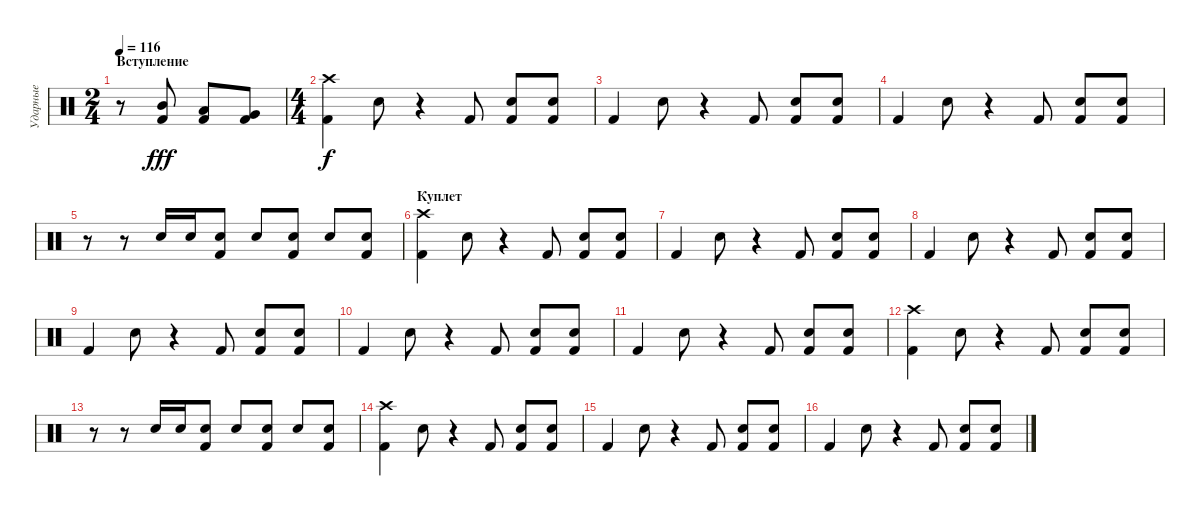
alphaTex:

\track ("Ударные" "Ударные") {instrument percussion}
\staff {score}
\articulation defaults
\ts (2 4)
\section ("" "Вступление")
\tempo 116
\clef neutral
\ks c
r.8{dy fff} ("Mid Tom (hit)" "Kick (hit) 2").8 ("Low Tom (hit)" "Kick (hit) 2").8 ("Very Low Tom (hit)" "Kick (hit) 2").8 |
\ts (4 4)
("Crash high (hit)" "Kick (hit) 2").4{dy f} "Electric Snare (hit)".8 r.4 "Kick (hit) 2".8 ("Electric Snare (hit)" "Kick (hit) 2").8 ("Electric Snare (hit)" "Kick (hit) 2").8 |
"Kick (hit) 2".4 "Electric Snare (hit)".8 r.4 "Kick (hit) 2".8 ("Electric Snare (hit)" "Kick (hit) 2").8 ("Electric Snare (hit)" "Kick (hit) 2").8 |
"Kick (hit) 2".4 "Electric Snare (hit)".8 r.4 "Kick (hit) 2".8 ("Electric Snare (hit)" "Kick (hit) 2").8 ("Electric Snare (hit)" "Kick (hit) 2").8 |
r.8 r.8 "Electric Snare (hit)".16 "Electric Snare (hit)".16 ("Electric Snare (hit)" "Kick (hit) 2").8 "Electric Snare (hit)".8 ("Electric Snare (hit)" "Kick (hit) 2").8 "Electric Snare (hit)".8 ("Electric Snare (hit)" "Kick (hit) 2").8 |
\section ("" "Куплет")
("Crash high (hit)" "Kick (hit) 2").4 "Electric Snare (hit)".8 r.4 "Kick (hit) 2".8 ("Electric Snare (hit)" "Kick (hit) 2").8 ("Electric Snare (hit)" "Kick (hit) 2").8 |
"Kick (hit) 2".4 "Electric Snare (hit)".8 r.4 "Kick (hit) 2".8 ("Electric Snare (hit)" "Kick (hit) 2").8 ("Electric Snare (hit)" "Kick (hit) 2").8 |
"Kick (hit) 2".4 "Electric Snare (hit)".8 r.4 "Kick (hit) 2".8 ("Electric Snare (hit)" "Kick (hit) 2").8 ("Electric Snare (hit)" "Kick (hit) 2").8 |
"Kick (hit) 2".4 "Electric Snare (hit)".8 r.4 "Kick (hit) 2".8 ("Electric Snare (hit)" "Kick (hit) 2").8 ("Electric Snare (hit)" "Kick (hit) 2").8 |
"Kick (hit) 2".4 "Electric Snare (hit)".8 r.4 "Kick (hit) 2".8 ("Electric Snare (hit)" "Kick (hit) 2").8 ("Electric Snare (hit)" "Kick (hit) 2").8 |
"Kick (hit) 2".4 "Electric Snare (hit)".8 r.4 "Kick (hit) 2".8 ("Electric Snare (hit)" "Kick (hit) 2").8 ("Electric Snare (hit)" "Kick (hit) 2").8 |
("Crash high (hit)" "Kick (hit) 2").4 "Electric Snare (hit)".8 r.4 "Kick (hit) 2".8 ("Electric Snare (hit)" "Kick (hit) 2").8 ("Electric Snare (hit)" "Kick (hit) 2").8 |
r.8 r.8 "Electric Snare (hit)".16 "Electric Snare (hit)".16 ("Electric Snare (hit)" "Kick (hit) 2").8 "Electric Snare (hit)".8 ("Electric Snare (hit)" "Kick (hit) 2").8 "Electric Snare (hit)".8 ("Electric Snare (hit)" "Kick (hit) 2").8 |
("Crash high (hit)" "Kick (hit) 2").4 "Electric Snare (hit)".8 r.4 "Kick (hit) 2".8 ("Electric Snare (hit)" "Kick (hit) 2").8 ("Electric Snare (hit)" "Kick (hit) 2").8 |
"Kick (hit) 2".4 "Electric Snare (hit)".8 r.4 "Kick (hit) 2".8 ("Electric Snare (hit)" "Kick (hit) 2").8 ("Electric Snare (hit)" "Kick (hit) 2").8 |
"Kick (hit) 2".4 "Electric Snare (hit)".8 r.4 "Kick (hit) 2".8 ("Electric Snare (hit)" "Kick (hit) 2").8 ("Electric Snare (hit)" "Kick (hit) 2").8
